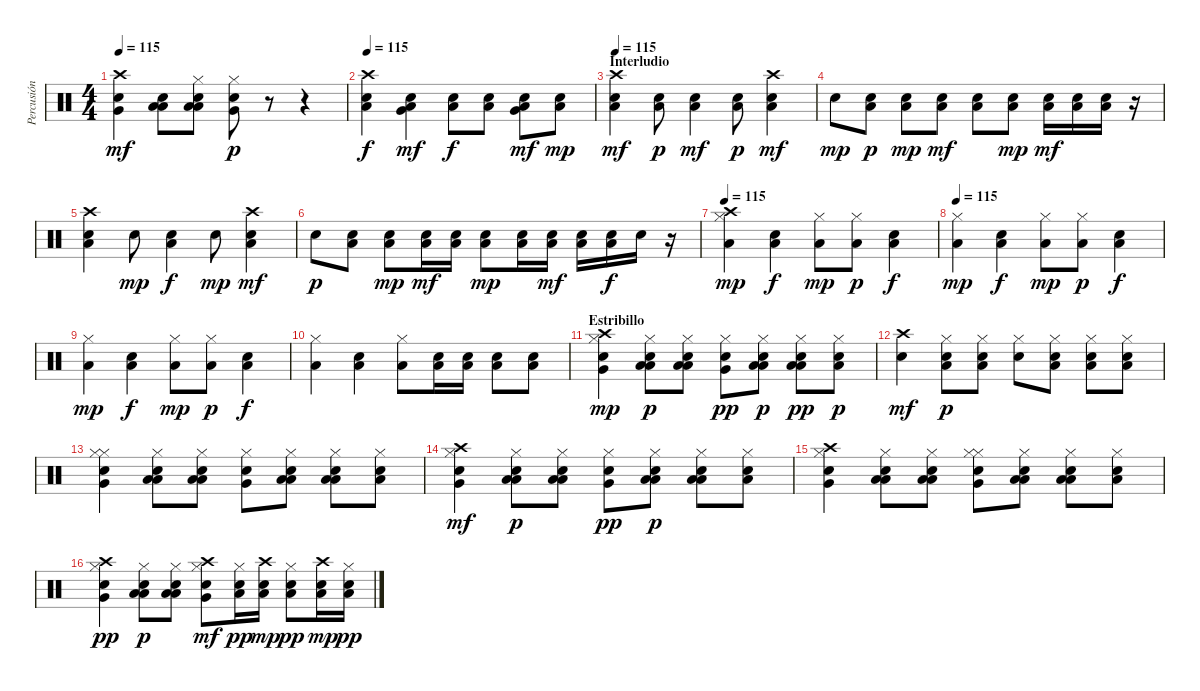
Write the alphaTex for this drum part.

\track ("Percusión" "Percusión") {instrument percussion}
\staff {score}
\articulation defaults
\ts (4 4)
\tempo 115
\clef neutral
\ks c
("Snare (hit) 2" "Very Low Tom (hit)" "Crash high (hit)").4{dy mf} ("Low Floor Tom (hit)" "Low Floor Tom (hit)" "Snare (hit) 2").8 ("Low Floor Tom (hit)" "Low Floor Tom (hit)" "Hi-Hat (closed)" "Snare (hit) 2").8 ("Snare (hit) 2" "Very Low Tom (hit)" "Hi-Hat (closed)").8{dy p} r.8 r.4 |
\tempo 115
("Snare (hit) 2" "Low Floor Tom (hit)" "Crash high (hit)").4{dy f} ("Snare (hit) 2" "Low Floor Tom (hit)" "Very Low Tom (hit)").4{dy mf} ("Snare (hit) 2" "Low Floor Tom (hit)").8{dy f} ("Snare (hit) 2" "Low Floor Tom (hit)").8 ("Snare (hit) 2" "Low Floor Tom (hit)" "Very Low Tom (hit)").8{dy mf} ("Snare (hit) 2" "Low Floor Tom (hit)").8{dy mp} |
\section ("" "Interludio")
\tempo 115
("Low Floor Tom (hit)" "Snare (hit) 2" "Crash high (hit)").4{dy mf} ("Low Floor Tom (hit)" "Snare (hit) 2").8{dy p} ("Low Floor Tom (hit)" "Snare (hit) 2").4{dy mf} ("Low Floor Tom (hit)" "Snare (hit) 2").8{dy p} ("Low Floor Tom (hit)" "Snare (hit) 2" "Crash high (hit)").4{dy mf} |
"Snare (hit) 2".8{dy mp} ("Snare (hit) 2" "Low Floor Tom (hit)").8{dy p} ("Snare (hit) 2" "Low Floor Tom (hit)").8{dy mp} ("Snare (hit) 2" "Low Floor Tom (hit)").8{dy mf} ("Snare (hit) 2" "Low Floor Tom (hit)").8 ("Snare (hit) 2" "Low Floor Tom (hit)").8{dy mp} ("Snare (hit) 2" "Low Floor Tom (hit)").16{dy mf} ("Snare (hit) 2" "Low Floor Tom (hit)").16 ("Snare (hit) 2" "Low Floor Tom (hit)").16 r.16 |
("Snare (hit) 2" "Low Floor Tom (hit)" "Crash high (hit)").4 "Snare (hit) 2".8{dy mp} ("Snare (hit) 2" "Low Floor Tom (hit)").4{dy f} "Snare (hit) 2".8{dy mp} ("Snare (hit) 2" "Low Floor Tom (hit)" "Crash high (hit)").4{dy mf} |
"Snare (hit) 2".8{dy p} ("Snare (hit) 2" "Low Floor Tom (hit)").8 ("Snare (hit) 2" "Low Floor Tom (hit)").8{dy mp} ("Snare (hit) 2" "Low Floor Tom (hit)").16{dy mf} ("Snare (hit) 2" "Low Floor Tom (hit)").16 ("Snare (hit) 2" "Low Floor Tom (hit)").8{dy mp} ("Snare (hit) 2" "Low Floor Tom (hit)").16 ("Snare (hit) 2" "Low Floor Tom (hit)").16{dy mf} ("Snare (hit) 2" "Low Floor Tom (hit)").16 ("Snare (hit) 2" "Low Floor Tom (hit)").16{dy f} "Snare (hit) 2".16 r.16 |
\tempo 115
("Hi-Hat (closed)" "Low Floor Tom (hit)" "Crash high (hit)").4{dy mp} ("Snare (hit) 2" "Low Floor Tom (hit)").4{dy f} ("Hi-Hat (closed)" "Low Floor Tom (hit)").8{dy mp} ("Hi-Hat (closed)" "Low Floor Tom (hit)").8{dy p} ("Snare (hit) 2" "Low Floor Tom (hit)").4{dy f} |
\tempo 115
("Hi-Hat (closed)" "Low Floor Tom (hit)").4{dy mp} ("Snare (hit) 2" "Low Floor Tom (hit)").4{dy f} ("Hi-Hat (closed)" "Low Floor Tom (hit)").8{dy mp} ("Hi-Hat (closed)" "Low Floor Tom (hit)").8{dy p} ("Snare (hit) 2" "Low Floor Tom (hit)").4{dy f} |
("Hi-Hat (closed)" "Low Floor Tom (hit)").4{dy mp} ("Snare (hit) 2" "Low Floor Tom (hit)").4{dy f} ("Hi-Hat (closed)" "Low Floor Tom (hit)").8{dy mp} ("Hi-Hat (closed)" "Low Floor Tom (hit)").8{dy p} ("Snare (hit) 2" "Low Floor Tom (hit)").4{dy f} |
("Hi-Hat (closed)" "Low Floor Tom (hit)").4 ("Snare (hit) 2" "Low Floor Tom (hit)").4 ("Hi-Hat (closed)" "Low Floor Tom (hit)").8 ("Snare (hit) 2" "Low Floor Tom (hit)").16 ("Snare (hit) 2" "Low Floor Tom (hit)").16 ("Snare (hit) 2" "Low Floor Tom (hit)").8 ("Snare (hit) 2" "Low Floor Tom (hit)").8 |
\section ("" "Estribillo")
("Snare (hit) 2" "Very Low Tom (hit)" "Crash high (hit)" "Hi-Hat (closed)").4{dy mp} ("Low Floor Tom (hit)" "Low Floor Tom (hit)" "Snare (hit) 2" "Hi-Hat (closed)").8{dy p} ("Low Floor Tom (hit)" "Low Floor Tom (hit)" "Snare (hit) 2" "Hi-Hat (closed)").8 ("Snare (hit) 2" "Very Low Tom (hit)" "Hi-Hat (closed)").8{dy pp} ("Low Floor Tom (hit)" "Low Floor Tom (hit)" "Snare (hit) 2" "Hi-Hat (closed)").8{dy p} ("Low Floor Tom (hit)" "Low Floor Tom (hit)" "Snare (hit) 2" "Hi-Hat (closed)").8{dy pp} ("Low Floor Tom (hit)" "Snare (hit) 2" "Hi-Hat (closed)").8{dy p} |
("Snare (hit) 2" "Crash high (hit)").4{dy mf} ("Low Floor Tom (hit)" "Snare (hit) 2" "Hi-Hat (closed)").8{dy p} ("Low Floor Tom (hit)" "Snare (hit) 2" "Hi-Hat (closed)").8 ("Snare (hit) 2" "Hi-Hat (closed)").8 ("Low Floor Tom (hit)" "Snare (hit) 2" "Hi-Hat (closed)").8 ("Low Floor Tom (hit)" "Snare (hit) 2" "Hi-Hat (closed)").8 ("Low Floor Tom (hit)" "Snare (hit) 2" "Hi-Hat (closed)").8 |
("Snare (hit) 2" "Very Low Tom (hit)" "Hi-Hat (closed)" "Hi-Hat (closed)").4 ("Low Floor Tom (hit)" "Low Floor Tom (hit)" "Snare (hit) 2" "Hi-Hat (closed)").8 ("Low Floor Tom (hit)" "Low Floor Tom (hit)" "Snare (hit) 2" "Hi-Hat (closed)").8 ("Snare (hit) 2" "Very Low Tom (hit)" "Hi-Hat (closed)").8 ("Low Floor Tom (hit)" "Low Floor Tom (hit)" "Snare (hit) 2" "Hi-Hat (closed)").8 ("Low Floor Tom (hit)" "Low Floor Tom (hit)" "Snare (hit) 2" "Hi-Hat (closed)").8 ("Low Floor Tom (hit)" "Snare (hit) 2" "Hi-Hat (closed)").8 |
("Snare (hit) 2" "Very Low Tom (hit)" "Hi-Hat (closed)" "Crash high (hit)").4{dy mf} ("Low Floor Tom (hit)" "Low Floor Tom (hit)" "Snare (hit) 2" "Hi-Hat (closed)").8{dy p} ("Low Floor Tom (hit)" "Low Floor Tom (hit)" "Snare (hit) 2" "Hi-Hat (closed)").8 ("Snare (hit) 2" "Very Low Tom (hit)" "Hi-Hat (closed)").8{dy pp} ("Low Floor Tom (hit)" "Low Floor Tom (hit)" "Snare (hit) 2" "Hi-Hat (closed)").8{dy p} ("Low Floor Tom (hit)" "Low Floor Tom (hit)" "Snare (hit) 2" "Hi-Hat (closed)").8 ("Low Floor Tom (hit)" "Snare (hit) 2" "Hi-Hat (closed)").8 |
("Snare (hit) 2" "Very Low Tom (hit)" "Crash high (hit)" "Hi-Hat (closed)").4 ("Low Floor Tom (hit)" "Low Floor Tom (hit)" "Snare (hit) 2" "Hi-Hat (closed)").8 ("Low Floor Tom (hit)" "Low Floor Tom (hit)" "Snare (hit) 2" "Hi-Hat (closed)").8 ("Snare (hit) 2" "Very Low Tom (hit)" "Hi-Hat (closed)" "Hi-Hat (closed)").8 ("Low Floor Tom (hit)" "Low Floor Tom (hit)" "Snare (hit) 2" "Hi-Hat (closed)").8 ("Low Floor Tom (hit)" "Low Floor Tom (hit)" "Snare (hit) 2" "Hi-Hat (closed)").8 ("Low Floor Tom (hit)" "Snare (hit) 2" "Hi-Hat (closed)").8 |
("Snare (hit) 2" "Very Low Tom (hit)" "Hi-Hat (closed)" "Crash high (hit)").4{dy pp} ("Low Floor Tom (hit)" "Low Floor Tom (hit)" "Snare (hit) 2" "Hi-Hat (closed)").8{dy p} ("Low Floor Tom (hit)" "Low Floor Tom (hit)" "Snare (hit) 2" "Hi-Hat (closed)").8 ("Snare (hit) 2" "Very Low Tom (hit)" "Hi-Hat (closed)" "Crash high (hit)").8{dy mf} ("Snare (hit) 2" "Low Floor Tom (hit)" "Hi-Hat (closed)").16{dy pp} ("Snare (hit) 2" "Low Floor Tom (hit)" "Crash high (hit)").16{dy mp} ("Snare (hit) 2" "Low Floor Tom (hit)" "Hi-Hat (closed)").8{dy pp} ("Snare (hit) 2" "Low Floor Tom (hit)" "Crash high (hit)").16{dy mp} ("Snare (hit) 2" "Low Floor Tom (hit)" "Hi-Hat (closed)").16{dy pp}
